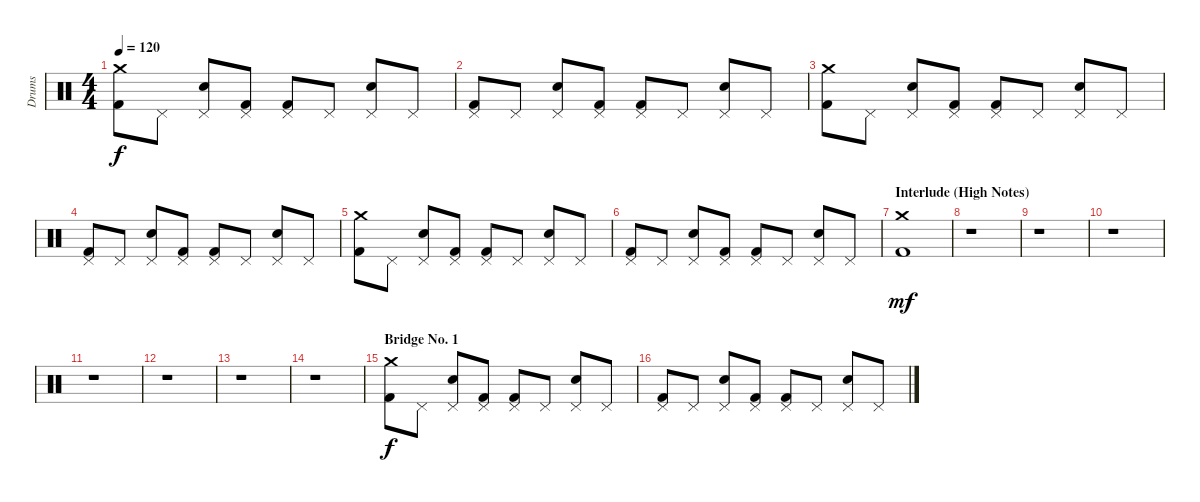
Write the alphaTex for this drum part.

\track ("Drums" "Drums") {instrument percussion}
\staff {score}
\articulation defaults
\ts (4 4)
\tempo 120
\clef neutral
\ks c
("Crash medium (hit)" "Kick (hit) 2").8{dy f} "Pedal Hi-Hat (hit)".8 ("Pedal Hi-Hat (hit)" "Electric Snare (hit)").8 ("Pedal Hi-Hat (hit)" "Kick (hit) 2").8 ("Pedal Hi-Hat (hit)" "Kick (hit) 2").8 "Pedal Hi-Hat (hit)".8 ("Pedal Hi-Hat (hit)" "Electric Snare (hit)").8 "Pedal Hi-Hat (hit)".8 |
("Pedal Hi-Hat (hit)" "Kick (hit) 2").8 "Pedal Hi-Hat (hit)".8 ("Pedal Hi-Hat (hit)" "Electric Snare (hit)").8 ("Pedal Hi-Hat (hit)" "Kick (hit) 2").8 ("Pedal Hi-Hat (hit)" "Kick (hit) 2").8 "Pedal Hi-Hat (hit)".8 ("Pedal Hi-Hat (hit)" "Electric Snare (hit)").8 "Pedal Hi-Hat (hit)".8 |
("Crash medium (hit)" "Kick (hit) 2").8 "Pedal Hi-Hat (hit)".8 ("Pedal Hi-Hat (hit)" "Electric Snare (hit)").8 ("Pedal Hi-Hat (hit)" "Kick (hit) 2").8 ("Pedal Hi-Hat (hit)" "Kick (hit) 2").8 "Pedal Hi-Hat (hit)".8 ("Pedal Hi-Hat (hit)" "Electric Snare (hit)").8 "Pedal Hi-Hat (hit)".8 |
("Pedal Hi-Hat (hit)" "Kick (hit) 2").8 "Pedal Hi-Hat (hit)".8 ("Pedal Hi-Hat (hit)" "Electric Snare (hit)").8 ("Pedal Hi-Hat (hit)" "Kick (hit) 2").8 ("Pedal Hi-Hat (hit)" "Kick (hit) 2").8 "Pedal Hi-Hat (hit)".8 ("Pedal Hi-Hat (hit)" "Electric Snare (hit)").8 "Pedal Hi-Hat (hit)".8 |
("Crash medium (hit)" "Kick (hit) 2").8 "Pedal Hi-Hat (hit)".8 ("Pedal Hi-Hat (hit)" "Electric Snare (hit)").8 ("Pedal Hi-Hat (hit)" "Kick (hit) 2").8 ("Pedal Hi-Hat (hit)" "Kick (hit) 2").8 "Pedal Hi-Hat (hit)".8 ("Pedal Hi-Hat (hit)" "Electric Snare (hit)").8 "Pedal Hi-Hat (hit)".8 |
("Pedal Hi-Hat (hit)" "Kick (hit) 2").8 "Pedal Hi-Hat (hit)".8 ("Pedal Hi-Hat (hit)" "Electric Snare (hit)").8 ("Pedal Hi-Hat (hit)" "Kick (hit) 2").8 ("Pedal Hi-Hat (hit)" "Kick (hit) 2").8 "Pedal Hi-Hat (hit)".8 ("Pedal Hi-Hat (hit)" "Electric Snare (hit)").8 "Pedal Hi-Hat (hit)".8 |
\section ("" "Interlude (High Notes)")
("Crash medium (hit)" "Kick (hit) 2").1{dy mf} |
r.1 |
r.1 |
r.1 |
r.1 |
r.1 |
r.1 |
r.1 |
\section ("" "Bridge No. 1")
("Crash medium (hit)" "Kick (hit) 2").8{dy f} "Pedal Hi-Hat (hit)".8 ("Pedal Hi-Hat (hit)" "Electric Snare (hit)").8 ("Pedal Hi-Hat (hit)" "Kick (hit) 2").8 ("Pedal Hi-Hat (hit)" "Kick (hit) 2").8 "Pedal Hi-Hat (hit)".8 ("Pedal Hi-Hat (hit)" "Electric Snare (hit)").8 "Pedal Hi-Hat (hit)".8 |
("Pedal Hi-Hat (hit)" "Kick (hit) 2").8 "Pedal Hi-Hat (hit)".8 ("Pedal Hi-Hat (hit)" "Electric Snare (hit)").8 ("Pedal Hi-Hat (hit)" "Kick (hit) 2").8 ("Pedal Hi-Hat (hit)" "Kick (hit) 2").8 "Pedal Hi-Hat (hit)".8 ("Pedal Hi-Hat (hit)" "Electric Snare (hit)").8 "Pedal Hi-Hat (hit)".8
